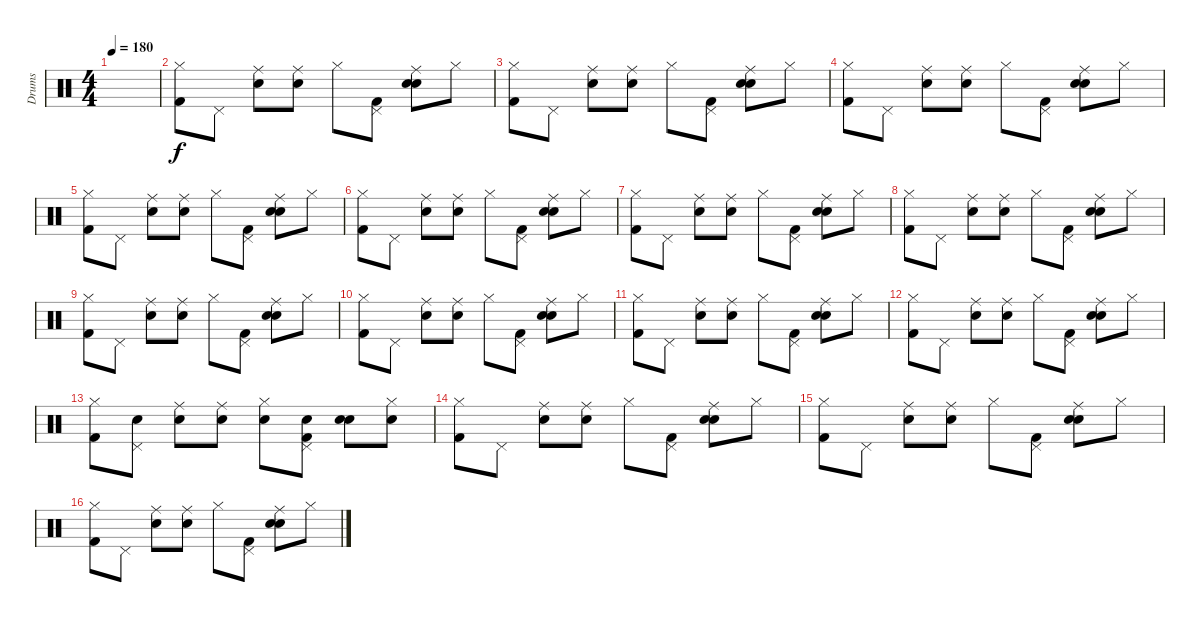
\track ("Drums" "Drums") {instrument percussion}
\staff {score}
\articulation defaults
\ts (4 4)
\tempo 180
\clef neutral
\ks c
|
("Hi-Hat (closed)" "Kick (hit) 2").8 "Pedal Hi-Hat (hit)".8 ("Ride (middle)" "Snare (hit) 2").8 ("Ride (middle)" "Snare (hit) 2").8 "Hi-Hat (closed)".8 ("Pedal Hi-Hat (hit)" "Kick (hit) 2").8 ("Hand Clap (hit)" "Ride (middle)" "Snare (hit) 2").8 "Hi-Hat (closed)".8 |
("Hi-Hat (closed)" "Kick (hit) 2").8 "Pedal Hi-Hat (hit)".8 ("Ride (middle)" "Snare (hit) 2").8 ("Ride (middle)" "Snare (hit) 2").8 "Hi-Hat (closed)".8 ("Pedal Hi-Hat (hit)" "Kick (hit) 2").8 ("Hand Clap (hit)" "Ride (middle)" "Snare (hit) 2").8 "Hi-Hat (closed)".8 |
("Hi-Hat (closed)" "Kick (hit) 2").8 "Pedal Hi-Hat (hit)".8 ("Ride (middle)" "Snare (hit) 2").8 ("Ride (middle)" "Snare (hit) 2").8 "Hi-Hat (closed)".8 ("Pedal Hi-Hat (hit)" "Kick (hit) 2").8 ("Hand Clap (hit)" "Ride (middle)" "Snare (hit) 2").8 "Hi-Hat (closed)".8 |
("Hi-Hat (closed)" "Kick (hit) 2").8 "Pedal Hi-Hat (hit)".8 ("Ride (middle)" "Snare (hit) 2").8 ("Ride (middle)" "Snare (hit) 2").8 "Hi-Hat (closed)".8 ("Pedal Hi-Hat (hit)" "Kick (hit) 2").8 ("Hand Clap (hit)" "Ride (middle)" "Snare (hit) 2").8 "Hi-Hat (closed)".8 |
("Hi-Hat (closed)" "Kick (hit) 2").8 "Pedal Hi-Hat (hit)".8 ("Ride (middle)" "Snare (hit) 2").8 ("Ride (middle)" "Snare (hit) 2").8 "Hi-Hat (closed)".8 ("Pedal Hi-Hat (hit)" "Kick (hit) 2").8 ("Hand Clap (hit)" "Ride (middle)" "Snare (hit) 2").8 "Hi-Hat (closed)".8 |
("Hi-Hat (closed)" "Kick (hit) 2").8 "Pedal Hi-Hat (hit)".8 ("Ride (middle)" "Snare (hit) 2").8 ("Ride (middle)" "Snare (hit) 2").8 "Hi-Hat (closed)".8 ("Pedal Hi-Hat (hit)" "Kick (hit) 2").8 ("Hand Clap (hit)" "Ride (middle)" "Snare (hit) 2").8 "Hi-Hat (closed)".8 |
("Hi-Hat (closed)" "Kick (hit) 2").8 "Pedal Hi-Hat (hit)".8 ("Ride (middle)" "Snare (hit) 2").8 ("Ride (middle)" "Snare (hit) 2").8 "Hi-Hat (closed)".8 ("Pedal Hi-Hat (hit)" "Kick (hit) 2").8 ("Hand Clap (hit)" "Ride (middle)" "Snare (hit) 2").8 "Hi-Hat (closed)".8 |
("Hi-Hat (closed)" "Kick (hit) 2").8 "Pedal Hi-Hat (hit)".8 ("Ride (middle)" "Snare (hit) 2").8 ("Ride (middle)" "Snare (hit) 2").8 "Hi-Hat (closed)".8 ("Pedal Hi-Hat (hit)" "Kick (hit) 2").8 ("Hand Clap (hit)" "Ride (middle)" "Snare (hit) 2").8 "Hi-Hat (closed)".8 |
("Hi-Hat (closed)" "Kick (hit) 2").8 "Pedal Hi-Hat (hit)".8 ("Ride (middle)" "Snare (hit) 2").8 ("Ride (middle)" "Snare (hit) 2").8 "Hi-Hat (closed)".8 ("Pedal Hi-Hat (hit)" "Kick (hit) 2").8 ("Hand Clap (hit)" "Ride (middle)" "Snare (hit) 2").8 "Hi-Hat (closed)".8 |
("Hi-Hat (closed)" "Kick (hit) 2").8 "Pedal Hi-Hat (hit)".8 ("Ride (middle)" "Snare (hit) 2").8 ("Ride (middle)" "Snare (hit) 2").8 "Hi-Hat (closed)".8 ("Pedal Hi-Hat (hit)" "Kick (hit) 2").8 ("Hand Clap (hit)" "Ride (middle)" "Snare (hit) 2").8 "Hi-Hat (closed)".8 |
("Hi-Hat (closed)" "Kick (hit) 2").8 "Pedal Hi-Hat (hit)".8 ("Ride (middle)" "Snare (hit) 2").8 ("Ride (middle)" "Snare (hit) 2").8 "Hi-Hat (closed)".8 ("Pedal Hi-Hat (hit)" "Kick (hit) 2").8 ("Hand Clap (hit)" "Ride (middle)" "Snare (hit) 2").8 "Hi-Hat (closed)".8 |
("Hi-Hat (closed)" "Kick (hit) 2").8 ("Pedal Hi-Hat (hit)" "Snare (hit) 2").8 ("Ride (middle)" "Snare (hit) 2").8 ("Ride (middle)" "Snare (hit) 2").8 ("Hi-Hat (closed)" "Snare (hit) 2").8 ("Pedal Hi-Hat (hit)" "Snare (hit) 2" "Kick (hit) 2").8 ("Hand Clap (hit)" "Snare (hit) 2").8 ("Hi-Hat (closed)" "Snare (hit) 2").8 |
("Hi-Hat (closed)" "Kick (hit) 2").8 "Pedal Hi-Hat (hit)".8 ("Ride (middle)" "Snare (hit) 2").8 ("Ride (middle)" "Snare (hit) 2").8 "Hi-Hat (closed)".8 ("Pedal Hi-Hat (hit)" "Kick (hit) 2").8 ("Hand Clap (hit)" "Ride (middle)" "Snare (hit) 2").8 "Hi-Hat (closed)".8 |
("Hi-Hat (closed)" "Kick (hit) 2").8 "Pedal Hi-Hat (hit)".8 ("Ride (middle)" "Snare (hit) 2").8 ("Ride (middle)" "Snare (hit) 2").8 "Hi-Hat (closed)".8 ("Pedal Hi-Hat (hit)" "Kick (hit) 2").8 ("Hand Clap (hit)" "Ride (middle)" "Snare (hit) 2").8 "Hi-Hat (closed)".8 |
("Hi-Hat (closed)" "Kick (hit) 2").8 "Pedal Hi-Hat (hit)".8 ("Ride (middle)" "Snare (hit) 2").8 ("Ride (middle)" "Snare (hit) 2").8 "Hi-Hat (closed)".8 ("Pedal Hi-Hat (hit)" "Kick (hit) 2").8 ("Hand Clap (hit)" "Ride (middle)" "Snare (hit) 2").8 "Hi-Hat (closed)".8
